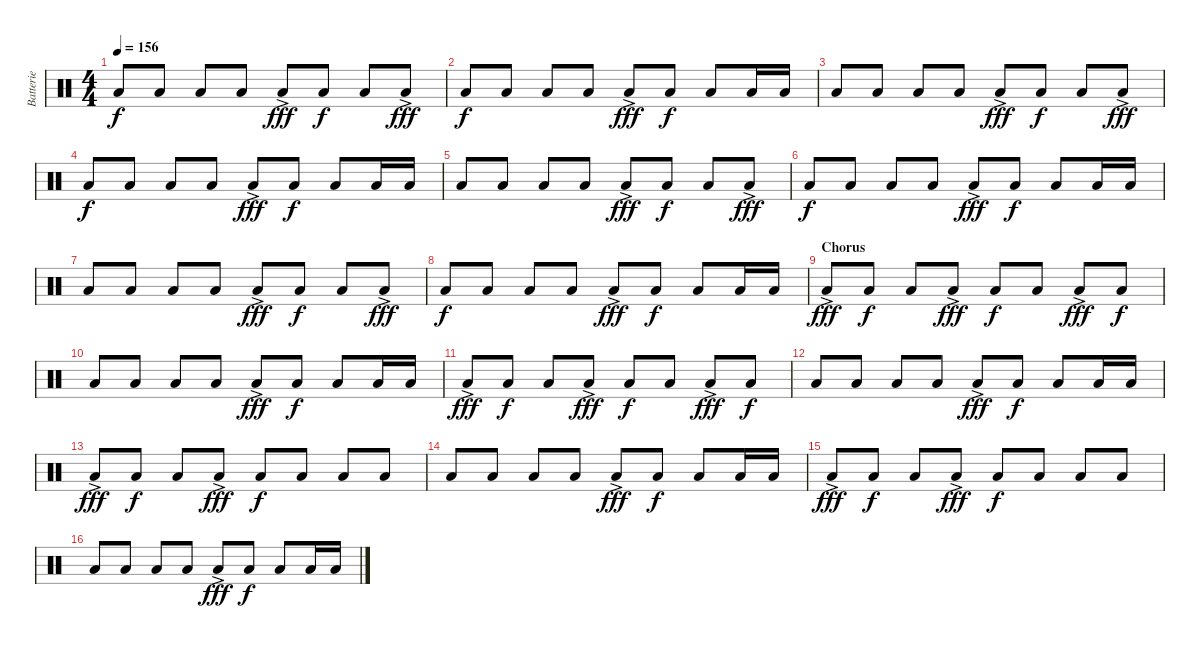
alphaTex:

\track ("Batterie" "Batterie") {instrument percussion}
\staff {score}
\articulation defaults
\ts (4 4)
\tempo 156
\clef neutral
\ks c "Low Floor Tom (hit)".8{dy f} "Low Floor Tom (hit)".8 "Low Floor Tom (hit)".8 "Low Floor Tom (hit)".8 "Low Floor Tom (hit)"{ac}.8{dy fff} "Low Floor Tom (hit)".8{dy f} "Low Floor Tom (hit)".8 "Low Floor Tom (hit)"{ac}.8{dy fff}
|
"Low Floor Tom (hit)".8{dy f} "Low Floor Tom (hit)".8 "Low Floor Tom (hit)".8 "Low Floor Tom (hit)".8 "Low Floor Tom (hit)"{ac}.8{dy fff} "Low Floor Tom (hit)".8{dy f} "Low Floor Tom (hit)".8 "Low Floor Tom (hit)".16 "Low Floor Tom (hit)".16 |
"Low Floor Tom (hit)".8 "Low Floor Tom (hit)".8 "Low Floor Tom (hit)".8 "Low Floor Tom (hit)".8 "Low Floor Tom (hit)"{ac}.8{dy fff} "Low Floor Tom (hit)".8{dy f} "Low Floor Tom (hit)".8 "Low Floor Tom (hit)"{ac}.8{dy fff} |
"Low Floor Tom (hit)".8{dy f} "Low Floor Tom (hit)".8 "Low Floor Tom (hit)".8 "Low Floor Tom (hit)".8 "Low Floor Tom (hit)"{ac}.8{dy fff} "Low Floor Tom (hit)".8{dy f} "Low Floor Tom (hit)".8 "Low Floor Tom (hit)".16 "Low Floor Tom (hit)".16 |
"Low Floor Tom (hit)".8 "Low Floor Tom (hit)".8 "Low Floor Tom (hit)".8 "Low Floor Tom (hit)".8 "Low Floor Tom (hit)"{ac}.8{dy fff} "Low Floor Tom (hit)".8{dy f} "Low Floor Tom (hit)".8 "Low Floor Tom (hit)"{ac}.8{dy fff} |
"Low Floor Tom (hit)".8{dy f} "Low Floor Tom (hit)".8 "Low Floor Tom (hit)".8 "Low Floor Tom (hit)".8 "Low Floor Tom (hit)"{ac}.8{dy fff} "Low Floor Tom (hit)".8{dy f} "Low Floor Tom (hit)".8 "Low Floor Tom (hit)".16 "Low Floor Tom (hit)".16 |
"Low Floor Tom (hit)".8 "Low Floor Tom (hit)".8 "Low Floor Tom (hit)".8 "Low Floor Tom (hit)".8 "Low Floor Tom (hit)"{ac}.8{dy fff} "Low Floor Tom (hit)".8{dy f} "Low Floor Tom (hit)".8 "Low Floor Tom (hit)"{ac}.8{dy fff} |
"Low Floor Tom (hit)".8{dy f} "Low Floor Tom (hit)".8 "Low Floor Tom (hit)".8 "Low Floor Tom (hit)".8 "Low Floor Tom (hit)"{ac}.8{dy fff} "Low Floor Tom (hit)".8{dy f} "Low Floor Tom (hit)".8 "Low Floor Tom (hit)".16 "Low Floor Tom (hit)".16 |
\section ("" "Chorus")
"Low Floor Tom (hit)"{ac}.8{dy fff} "Low Floor Tom (hit)".8{dy f} "Low Floor Tom (hit)".8 "Low Floor Tom (hit)"{ac}.8{dy fff} "Low Floor Tom (hit)".8{dy f} "Low Floor Tom (hit)".8 "Low Floor Tom (hit)"{ac}.8{dy fff} "Low Floor Tom (hit)".8{dy f} |
"Low Floor Tom (hit)".8 "Low Floor Tom (hit)".8 "Low Floor Tom (hit)".8 "Low Floor Tom (hit)".8 "Low Floor Tom (hit)"{ac}.8{dy fff} "Low Floor Tom (hit)".8{dy f} "Low Floor Tom (hit)".8 "Low Floor Tom (hit)".16 "Low Floor Tom (hit)".16 |
"Low Floor Tom (hit)"{ac}.8{dy fff} "Low Floor Tom (hit)".8{dy f} "Low Floor Tom (hit)".8 "Low Floor Tom (hit)"{ac}.8{dy fff} "Low Floor Tom (hit)".8{dy f} "Low Floor Tom (hit)".8 "Low Floor Tom (hit)"{ac}.8{dy fff} "Low Floor Tom (hit)".8{dy f} |
"Low Floor Tom (hit)".8 "Low Floor Tom (hit)".8 "Low Floor Tom (hit)".8 "Low Floor Tom (hit)".8 "Low Floor Tom (hit)"{ac}.8{dy fff} "Low Floor Tom (hit)".8{dy f} "Low Floor Tom (hit)".8 "Low Floor Tom (hit)".16 "Low Floor Tom (hit)".16 |
"Low Floor Tom (hit)"{ac}.8{dy fff} "Low Floor Tom (hit)".8{dy f} "Low Floor Tom (hit)".8 "Low Floor Tom (hit)"{ac}.8{dy fff} "Low Floor Tom (hit)".8{dy f} "Low Floor Tom (hit)".8 "Low Floor Tom (hit)".8 "Low Floor Tom (hit)".8 |
"Low Floor Tom (hit)".8 "Low Floor Tom (hit)".8 "Low Floor Tom (hit)".8 "Low Floor Tom (hit)".8 "Low Floor Tom (hit)"{ac}.8{dy fff} "Low Floor Tom (hit)".8{dy f} "Low Floor Tom (hit)".8 "Low Floor Tom (hit)".16 "Low Floor Tom (hit)".16 |
"Low Floor Tom (hit)"{ac}.8{dy fff} "Low Floor Tom (hit)".8{dy f} "Low Floor Tom (hit)".8 "Low Floor Tom (hit)"{ac}.8{dy fff} "Low Floor Tom (hit)".8{dy f} "Low Floor Tom (hit)".8 "Low Floor Tom (hit)".8 "Low Floor Tom (hit)".8 |
"Low Floor Tom (hit)".8 "Low Floor Tom (hit)".8 "Low Floor Tom (hit)".8 "Low Floor Tom (hit)".8 "Low Floor Tom (hit)"{ac}.8{dy fff} "Low Floor Tom (hit)".8{dy f} "Low Floor Tom (hit)".8 "Low Floor Tom (hit)".16 "Low Floor Tom (hit)".16
